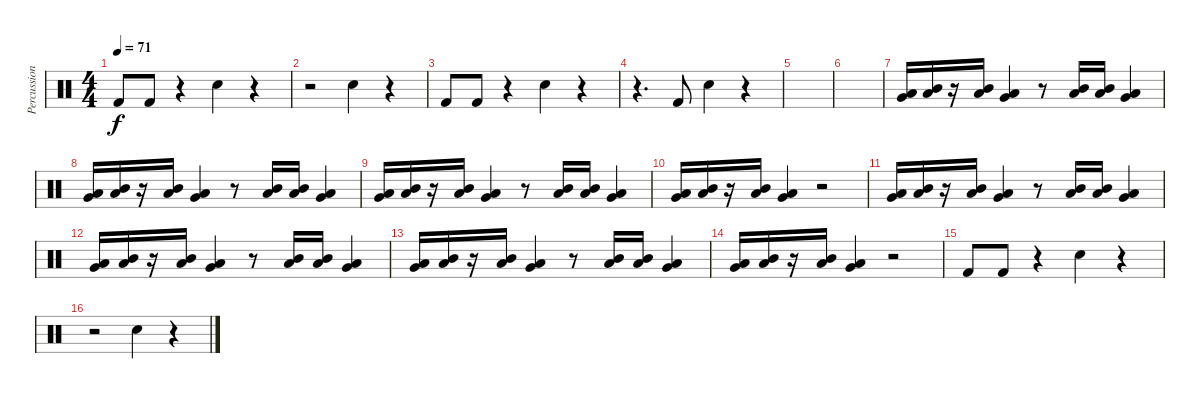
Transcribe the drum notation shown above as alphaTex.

\track ("Percussion" "Percussion") {instrument percussion}
\staff {score}
\articulation defaults
\ts (4 4)
\tempo 71
\clef neutral
\ks c "Kick (hit) 2".8{dy f} "Kick (hit) 2".8
r.4 "Snare (hit) 2".4 r.4 |
r.2 "Snare (hit) 2".4 r.4 |
"Kick (hit) 2".8 "Kick (hit) 2".8 r.4 "Snare (hit) 2".4 r.4 |
r.4{d} "Kick (hit) 2".8 "Snare (hit) 2".4 r.4 |
|
|
("Very Low Tom (hit)" "Low Floor Tom (hit)").16 ("Mid Tom (hit)" "Low Tom (hit)").16 r.16 ("Mid Tom (hit)" "Low Tom (hit)").16 ("Very Low Tom (hit)" "Low Floor Tom (hit)").4 r.8 ("Mid Tom (hit)" "Low Tom (hit)").16 ("Mid Tom (hit)" "Low Tom (hit)").16 ("Very Low Tom (hit)" "Low Floor Tom (hit)").4 |
("Very Low Tom (hit)" "Low Floor Tom (hit)").16 ("Mid Tom (hit)" "Low Tom (hit)").16 r.16 ("Mid Tom (hit)" "Low Tom (hit)").16 ("Very Low Tom (hit)" "Low Floor Tom (hit)").4 r.8 ("Mid Tom (hit)" "Low Tom (hit)").16 ("Mid Tom (hit)" "Low Tom (hit)").16 ("Very Low Tom (hit)" "Low Floor Tom (hit)").4 |
("Very Low Tom (hit)" "Low Floor Tom (hit)").16 ("Mid Tom (hit)" "Low Tom (hit)").16 r.16 ("Mid Tom (hit)" "Low Tom (hit)").16 ("Very Low Tom (hit)" "Low Floor Tom (hit)").4 r.8 ("Mid Tom (hit)" "Low Tom (hit)").16 ("Mid Tom (hit)" "Low Tom (hit)").16 ("Very Low Tom (hit)" "Low Floor Tom (hit)").4 |
("Very Low Tom (hit)" "Low Floor Tom (hit)").16 ("Mid Tom (hit)" "Low Tom (hit)").16 r.16 ("Mid Tom (hit)" "Low Tom (hit)").16 ("Very Low Tom (hit)" "Low Floor Tom (hit)").4 r.2 |
("Very Low Tom (hit)" "Low Floor Tom (hit)").16 ("Mid Tom (hit)" "Low Tom (hit)").16 r.16 ("Mid Tom (hit)" "Low Tom (hit)").16 ("Very Low Tom (hit)" "Low Floor Tom (hit)").4 r.8 ("Mid Tom (hit)" "Low Tom (hit)").16 ("Mid Tom (hit)" "Low Tom (hit)").16 ("Very Low Tom (hit)" "Low Floor Tom (hit)").4 |
("Very Low Tom (hit)" "Low Floor Tom (hit)").16 ("Mid Tom (hit)" "Low Tom (hit)").16 r.16 ("Mid Tom (hit)" "Low Tom (hit)").16 ("Very Low Tom (hit)" "Low Floor Tom (hit)").4 r.8 ("Mid Tom (hit)" "Low Tom (hit)").16 ("Mid Tom (hit)" "Low Tom (hit)").16 ("Very Low Tom (hit)" "Low Floor Tom (hit)").4 |
("Very Low Tom (hit)" "Low Floor Tom (hit)").16 ("Mid Tom (hit)" "Low Tom (hit)").16 r.16 ("Mid Tom (hit)" "Low Tom (hit)").16 ("Very Low Tom (hit)" "Low Floor Tom (hit)").4 r.8 ("Mid Tom (hit)" "Low Tom (hit)").16 ("Mid Tom (hit)" "Low Tom (hit)").16 ("Very Low Tom (hit)" "Low Floor Tom (hit)").4 |
("Very Low Tom (hit)" "Low Floor Tom (hit)").16 ("Mid Tom (hit)" "Low Tom (hit)").16 r.16 ("Mid Tom (hit)" "Low Tom (hit)").16 ("Very Low Tom (hit)" "Low Floor Tom (hit)").4 r.2 |
"Kick (hit) 2".8 "Kick (hit) 2".8 r.4 "Snare (hit) 2".4 r.4 |
r.2 "Snare (hit) 2".4 r.4
